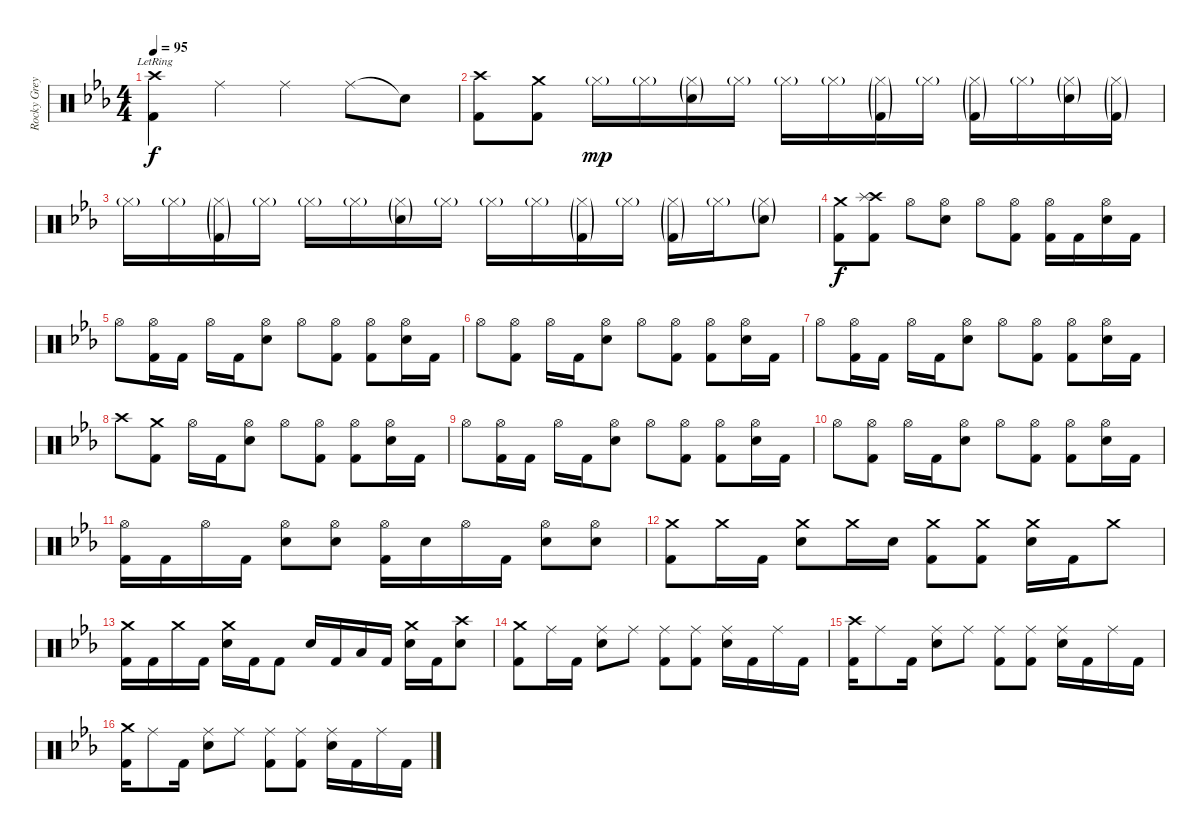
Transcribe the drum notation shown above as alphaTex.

\track ("Rocky Grey" "Rocky Grey") {instrument percussion}
\staff {score}
\articulation defaults
\ts (4 4)
\tempo 95
\clef neutral
\ks eb
("Crash high (hit)"{lr} "Kick (hit) 2").4{dy f} "Ride (middle)".4 "Ride (middle)".4 "Ride (middle)".8 "Snare (hit)"{t}.8 |
("Crash high (hit)" "Kick (hit) 2").8 ("Crash medium (hit)" "Kick (hit) 2").8 "Hi-Hat (closed)"{g}.16{dy mp} "Hi-Hat (closed)"{g}.16 ("Hi-Hat (closed)"{g} "Snare (hit) 2"{g}).16 "Hi-Hat (closed)"{g}.16 "Hi-Hat (closed)"{g}.16 "Hi-Hat (closed)"{g}.16 ("Hi-Hat (closed)"{g} "Kick (hit) 2"{g}).16 "Hi-Hat (closed)"{g}.16 ("Hi-Hat (closed)"{g} "Kick (hit) 2"{g}).16 "Hi-Hat (closed)"{g}.16 ("Hi-Hat (closed)"{g} "Snare (hit) 2"{g}).16 ("Hi-Hat (closed)"{g} "Kick (hit) 2"{g}).16 |
"Hi-Hat (closed)"{g}.16 "Hi-Hat (closed)"{g}.16 ("Hi-Hat (closed)"{g} "Kick (hit) 2"{g}).16 "Hi-Hat (closed)"{g}.16 "Hi-Hat (closed)"{g}.16 "Hi-Hat (closed)"{g}.16 ("Hi-Hat (closed)"{g} "Snare (hit) 2"{g}).16 "Hi-Hat (closed)"{g}.16 "Hi-Hat (closed)"{g}.16 "Hi-Hat (closed)"{g}.16 ("Hi-Hat (closed)"{g} "Kick (hit) 2"{g}).16 "Hi-Hat (closed)"{g}.16 ("Hi-Hat (closed)"{g} "Kick (hit) 2"{g}).16 "Hi-Hat (closed)"{g}.16 ("Hi-Hat (closed)"{g} "Snare (hit) 2"{g}).8 |
("Crash medium (hit)" "Kick (hit) 2").8{dy f} ("Crash high (hit)" "Splash (hit)" "Kick (hit) 2").8 "Hi-Hat (open)".8 ("Hi-Hat (open)" "Snare (hit) 2").8 "Hi-Hat (open)".8 ("Hi-Hat (open)" "Kick (hit) 2").8 ("Hi-Hat (open)" "Kick (hit) 2").16 "Kick (hit) 2".16 ("Hi-Hat (open)" "Snare (hit) 2").16 "Kick (hit) 2".16 |
"Hi-Hat (open)".8 ("Hi-Hat (open)" "Kick (hit) 2").16 "Kick (hit) 2".16 "Hi-Hat (open)".16 "Kick (hit) 2".16 ("Hi-Hat (open)" "Snare (hit) 2").8 "Hi-Hat (open)".8 ("Hi-Hat (open)" "Kick (hit) 2").8 ("Hi-Hat (open)" "Kick (hit) 2").8 ("Hi-Hat (open)" "Snare (hit) 2").16 "Kick (hit) 2".16 |
"Hi-Hat (open)".8 ("Hi-Hat (open)" "Kick (hit) 2").8 "Hi-Hat (open)".16 "Kick (hit) 2".16 ("Hi-Hat (open)" "Snare (hit) 2").8 "Hi-Hat (open)".8 ("Hi-Hat (open)" "Kick (hit) 2").8 ("Hi-Hat (open)" "Kick (hit) 2").8 ("Hi-Hat (open)" "Snare (hit) 2").16 "Kick (hit) 2".16 |
"Hi-Hat (open)".8 ("Hi-Hat (open)" "Kick (hit) 2").16 "Kick (hit) 2".16 "Hi-Hat (open)".16 "Kick (hit) 2".16 ("Hi-Hat (open)" "Snare (hit) 2").8 "Hi-Hat (open)".8 ("Hi-Hat (open)" "Kick (hit) 2").8 ("Hi-Hat (open)" "Kick (hit) 2").8 ("Hi-Hat (open)" "Snare (hit) 2").16 "Kick (hit) 2".16 |
"Crash high (hit)".8 ("Crash medium (hit)" "Kick (hit) 2").8 "Hi-Hat (open)".16 "Kick (hit) 2".16 ("Hi-Hat (open)" "Snare (hit) 2").8 "Hi-Hat (open)".8 ("Hi-Hat (open)" "Kick (hit) 2").8 ("Hi-Hat (open)" "Kick (hit) 2").8 ("Hi-Hat (open)" "Snare (hit) 2").16 "Kick (hit) 2".16 |
"Hi-Hat (open)".8 ("Hi-Hat (open)" "Kick (hit) 2").16 "Kick (hit) 2".16 "Hi-Hat (open)".16 "Kick (hit) 2".16 ("Hi-Hat (open)" "Snare (hit) 2").8 "Hi-Hat (open)".8 ("Hi-Hat (open)" "Kick (hit) 2").8 ("Hi-Hat (open)" "Kick (hit) 2").8 ("Hi-Hat (open)" "Snare (hit) 2").16 "Kick (hit) 2".16 |
"Hi-Hat (open)".8 ("Hi-Hat (open)" "Kick (hit) 2").8 "Hi-Hat (open)".16 "Kick (hit) 2".16 ("Hi-Hat (open)" "Snare (hit) 2").8 "Hi-Hat (open)".8 ("Hi-Hat (open)" "Kick (hit) 2").8 ("Hi-Hat (open)" "Kick (hit) 2").8 ("Hi-Hat (open)" "Snare (hit) 2").16 "Kick (hit) 2".16 |
("Hi-Hat (open)" "Kick (hit) 2").16 "Kick (hit) 2".16 "Hi-Hat (open)".16 "Kick (hit) 2".16 ("Hi-Hat (open)" "Snare (hit) 2").8 ("Hi-Hat (open)" "Snare (hit) 2").8 ("Hi-Hat (open)" "Kick (hit) 2").16 "Snare (hit) 2".16 "Hi-Hat (open)".16 "Kick (hit) 2".16 ("Hi-Hat (open)" "Snare (hit) 2").8 ("Hi-Hat (open)" "Snare (hit) 2").8 |
("Crash medium (hit)" "Kick (hit) 2").8 "Crash medium (hit)".16 "Kick (hit) 2".16 ("Crash medium (hit)" "Snare (hit) 2").8 "Crash medium (hit)".16 "Snare (hit) 2".16 ("Crash medium (hit)" "Kick (hit) 2").8 ("Crash medium (hit)" "Kick (hit) 2").8 ("Crash medium (hit)" "Snare (hit) 2").16 "Kick (hit) 2".16 "Crash medium (hit)".8 |
("Crash medium (hit)" "Kick (hit) 2").16 "Kick (hit) 2".16 "Crash medium (hit)".16 "Kick (hit) 2".16 ("Crash medium (hit)" "Snare (hit) 2").16 "Kick (hit) 2".16 "Kick (hit) 2".8 "Snare (hit) 2".16 "Kick (hit) 2".16 "Low Floor Tom (hit)".16 "Kick (hit) 2".16 ("Crash medium (hit)" "Snare (hit) 2").16 "Kick (hit) 2".16 ("Crash high (hit)" "Snare (hit) 2").8 |
("Crash medium (hit)" "Kick (hit) 2").8 "Ride (middle)".16 "Kick (hit) 2".16 ("Ride (middle)" "Snare (hit) 2").8 "Ride (middle)".8 ("Ride (middle)" "Kick (hit) 2").8 ("Ride (middle)" "Kick (hit) 2").8 ("Ride (middle)" "Snare (hit) 2").16 "Kick (hit) 2".16 "Ride (middle)".16 "Kick (hit) 2".16 |
("Crash high (hit)" "Kick (hit) 2").16 "Ride (middle)".8 "Kick (hit) 2".16 ("Ride (middle)" "Snare (hit) 2").8 "Ride (middle)".8 ("Ride (middle)" "Kick (hit) 2").8 ("Ride (middle)" "Kick (hit) 2").8 ("Ride (middle)" "Snare (hit) 2").16 "Kick (hit) 2".16 "Ride (middle)".16 "Kick (hit) 2".16 |
("Crash medium (hit)" "Kick (hit) 2").16 "Ride (middle)".8 "Kick (hit) 2".16 ("Ride (middle)" "Snare (hit) 2").8 "Ride (middle)".8 ("Ride (middle)" "Kick (hit) 2").8 ("Ride (middle)" "Kick (hit) 2").8 ("Ride (middle)" "Snare (hit) 2").16 "Kick (hit) 2".16 "Ride (middle)".16 "Kick (hit) 2".16
